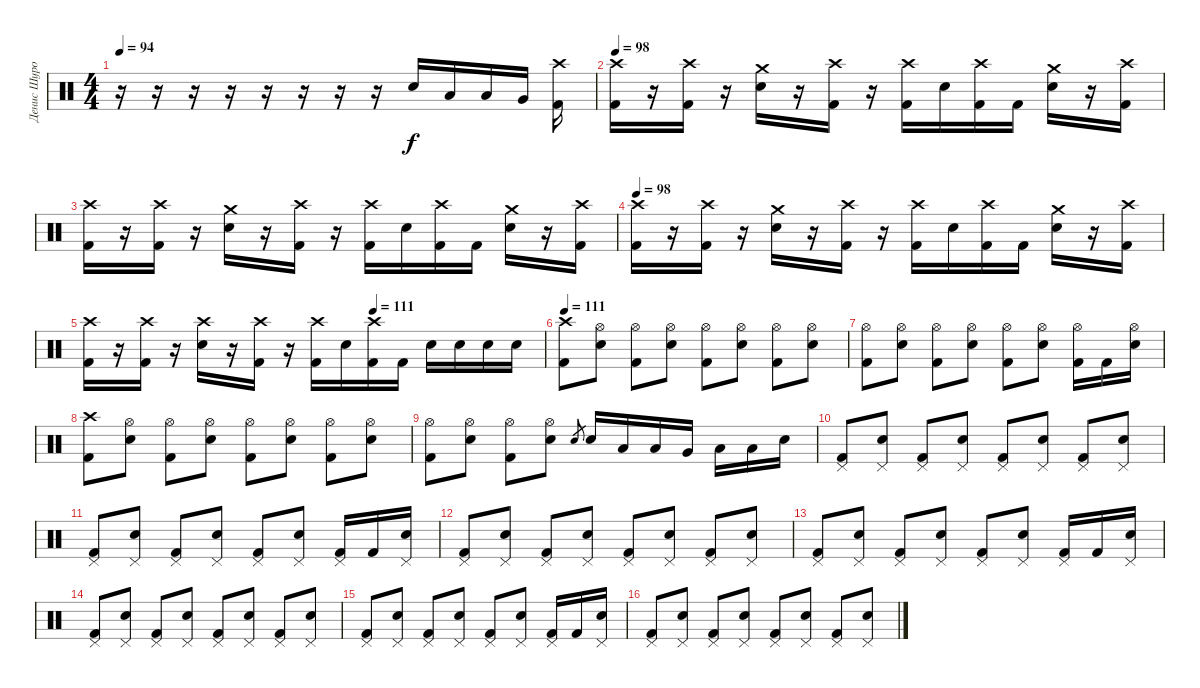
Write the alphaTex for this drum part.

\track ("Денис Шуров" "Денис Шуро") {instrument percussion}
\staff {score}
\articulation defaults
\ts (4 4)
\tempo 94
\clef neutral
\ks c
r.16{dy f} r.16 r.16 r.16 r.16 r.16 r.16 r.16 "Electric Snare (hit)".16 "Low Tom (hit)".16 "Low Tom (hit)".16 "Very Low Tom (hit)".16 ("Crash high (hit)" "Kick (hit) 2").16 |
\tempo 98
("Crash high (hit)" "Kick (hit) 2").16 r.16 ("Crash high (hit)" "Kick (hit) 2").16 r.16 ("Crash medium (hit)" "Electric Snare (hit)").16 r.16 ("Crash high (hit)" "Kick (hit) 2").16 r.16 ("Crash high (hit)" "Kick (hit) 2").16 "Electric Snare (hit)".16 ("Crash high (hit)" "Kick (hit) 2").16 "Kick (hit) 2".16 ("Crash medium (hit)" "Electric Snare (hit)").16 r.16 ("Crash high (hit)" "Kick (hit) 2").16 |
("Crash high (hit)" "Kick (hit) 2").16 r.16 ("Crash high (hit)" "Kick (hit) 2").16 r.16 ("Crash medium (hit)" "Electric Snare (hit)").16 r.16 ("Crash high (hit)" "Kick (hit) 2").16 r.16 ("Crash high (hit)" "Kick (hit) 2").16 "Electric Snare (hit)".16 ("Crash high (hit)" "Kick (hit) 2").16 "Kick (hit) 2".16 ("Crash medium (hit)" "Electric Snare (hit)").16 r.16 ("Crash high (hit)" "Kick (hit) 2").16 |
\tempo 98
("Crash high (hit)" "Kick (hit) 2").16 r.16 ("Crash high (hit)" "Kick (hit) 2").16 r.16 ("Crash medium (hit)" "Electric Snare (hit)").16 r.16 ("Crash high (hit)" "Kick (hit) 2").16 r.16 ("Crash high (hit)" "Kick (hit) 2").16 "Electric Snare (hit)".16 ("Crash high (hit)" "Kick (hit) 2").16 "Kick (hit) 2".16 ("Crash medium (hit)" "Electric Snare (hit)").16 r.16 ("Crash high (hit)" "Kick (hit) 2").16 |
\tempo (111 0.625)
("Crash high (hit)" "Kick (hit) 2").16 r.16 ("Crash high (hit)" "Kick (hit) 2").16 r.16 ("Crash high (hit)" "Electric Snare (hit)").16 r.16 ("Crash high (hit)" "Kick (hit) 2").16 r.16 ("Crash high (hit)" "Kick (hit) 2").16 "Electric Snare (hit)".16 ("Crash high (hit)" "Kick (hit) 2").16 "Kick (hit) 2".16 "Electric Snare (hit)".16 "Electric Snare (hit)".16 "Electric Snare (hit)".16 "Electric Snare (hit)".16 |
\tempo 111
("Crash high (hit)" "Kick (hit) 2").8 ("Hi-Hat (open)" "Electric Snare (hit)").8 ("Hi-Hat (open)" "Kick (hit) 2").8 ("Hi-Hat (open)" "Electric Snare (hit)").8 ("Hi-Hat (open)" "Kick (hit) 2").8 ("Hi-Hat (open)" "Electric Snare (hit)").8 ("Hi-Hat (open)" "Kick (hit) 2").8 ("Hi-Hat (open)" "Electric Snare (hit)").8 |
("Hi-Hat (open)" "Kick (hit) 2").8 ("Hi-Hat (open)" "Electric Snare (hit)").8 ("Hi-Hat (open)" "Kick (hit) 2").8 ("Hi-Hat (open)" "Electric Snare (hit)").8 ("Hi-Hat (open)" "Kick (hit) 2").8 ("Hi-Hat (open)" "Electric Snare (hit)").8 ("Hi-Hat (open)" "Kick (hit) 2").16 "Kick (hit) 2".16 ("Hi-Hat (open)" "Electric Snare (hit)").16 |
("Crash high (hit)" "Kick (hit) 2").8 ("Hi-Hat (open)" "Electric Snare (hit)").8 ("Hi-Hat (open)" "Kick (hit) 2").8 ("Hi-Hat (open)" "Electric Snare (hit)").8 ("Hi-Hat (open)" "Kick (hit) 2").8 ("Hi-Hat (open)" "Electric Snare (hit)").8 ("Hi-Hat (open)" "Kick (hit) 2").8 ("Hi-Hat (open)" "Electric Snare (hit)").8 |
("Hi-Hat (open)" "Kick (hit) 2").8 ("Hi-Hat (open)" "Electric Snare (hit)").8 ("Hi-Hat (open)" "Kick (hit) 2").8 ("Hi-Hat (open)" "Electric Snare (hit)").8 "Electric Snare (hit)".8{gr} "Electric Snare (hit)".16 "Low Tom (hit)".16 "Low Tom (hit)".16 "Very Low Tom (hit)".16 "Low Tom (hit)".16 "Low Tom (hit)".16 "Electric Snare (hit)".16 |
("Pedal Hi-Hat (hit)" "Kick (hit) 2").8 ("Pedal Hi-Hat (hit)" "Electric Snare (hit)").8 ("Pedal Hi-Hat (hit)" "Kick (hit) 2").8 ("Pedal Hi-Hat (hit)" "Electric Snare (hit)").8 ("Pedal Hi-Hat (hit)" "Kick (hit) 2").8 ("Pedal Hi-Hat (hit)" "Electric Snare (hit)").8 ("Pedal Hi-Hat (hit)" "Kick (hit) 2").8 ("Pedal Hi-Hat (hit)" "Electric Snare (hit)").8 |
("Pedal Hi-Hat (hit)" "Kick (hit) 2").8 ("Pedal Hi-Hat (hit)" "Electric Snare (hit)").8 ("Pedal Hi-Hat (hit)" "Kick (hit) 2").8 ("Pedal Hi-Hat (hit)" "Electric Snare (hit)").8 ("Pedal Hi-Hat (hit)" "Kick (hit) 2").8 ("Pedal Hi-Hat (hit)" "Electric Snare (hit)").8 ("Pedal Hi-Hat (hit)" "Kick (hit) 2").16 "Kick (hit) 2".16 ("Pedal Hi-Hat (hit)" "Electric Snare (hit)").16 |
("Pedal Hi-Hat (hit)" "Kick (hit) 2").8 ("Pedal Hi-Hat (hit)" "Electric Snare (hit)").8 ("Pedal Hi-Hat (hit)" "Kick (hit) 2").8 ("Pedal Hi-Hat (hit)" "Electric Snare (hit)").8 ("Pedal Hi-Hat (hit)" "Kick (hit) 2").8 ("Pedal Hi-Hat (hit)" "Electric Snare (hit)").8 ("Pedal Hi-Hat (hit)" "Kick (hit) 2").8 ("Pedal Hi-Hat (hit)" "Electric Snare (hit)").8 |
("Pedal Hi-Hat (hit)" "Kick (hit) 2").8 ("Pedal Hi-Hat (hit)" "Electric Snare (hit)").8 ("Pedal Hi-Hat (hit)" "Kick (hit) 2").8 ("Pedal Hi-Hat (hit)" "Electric Snare (hit)").8 ("Pedal Hi-Hat (hit)" "Kick (hit) 2").8 ("Pedal Hi-Hat (hit)" "Electric Snare (hit)").8 ("Pedal Hi-Hat (hit)" "Kick (hit) 2").16 "Kick (hit) 2".16 ("Pedal Hi-Hat (hit)" "Electric Snare (hit)").16 |
("Pedal Hi-Hat (hit)" "Kick (hit) 2").8 ("Pedal Hi-Hat (hit)" "Electric Snare (hit)").8 ("Pedal Hi-Hat (hit)" "Kick (hit) 2").8 ("Pedal Hi-Hat (hit)" "Electric Snare (hit)").8 ("Pedal Hi-Hat (hit)" "Kick (hit) 2").8 ("Pedal Hi-Hat (hit)" "Electric Snare (hit)").8 ("Pedal Hi-Hat (hit)" "Kick (hit) 2").8 ("Pedal Hi-Hat (hit)" "Electric Snare (hit)").8 |
("Pedal Hi-Hat (hit)" "Kick (hit) 2").8 ("Pedal Hi-Hat (hit)" "Electric Snare (hit)").8 ("Pedal Hi-Hat (hit)" "Kick (hit) 2").8 ("Pedal Hi-Hat (hit)" "Electric Snare (hit)").8 ("Pedal Hi-Hat (hit)" "Kick (hit) 2").8 ("Pedal Hi-Hat (hit)" "Electric Snare (hit)").8 ("Pedal Hi-Hat (hit)" "Kick (hit) 2").16 "Kick (hit) 2".16 ("Pedal Hi-Hat (hit)" "Electric Snare (hit)").16 |
("Pedal Hi-Hat (hit)" "Kick (hit) 2").8 ("Pedal Hi-Hat (hit)" "Electric Snare (hit)").8 ("Pedal Hi-Hat (hit)" "Kick (hit) 2").8 ("Pedal Hi-Hat (hit)" "Electric Snare (hit)").8 ("Pedal Hi-Hat (hit)" "Kick (hit) 2").8 ("Pedal Hi-Hat (hit)" "Electric Snare (hit)").8 ("Pedal Hi-Hat (hit)" "Kick (hit) 2").8 ("Pedal Hi-Hat (hit)" "Electric Snare (hit)").8
